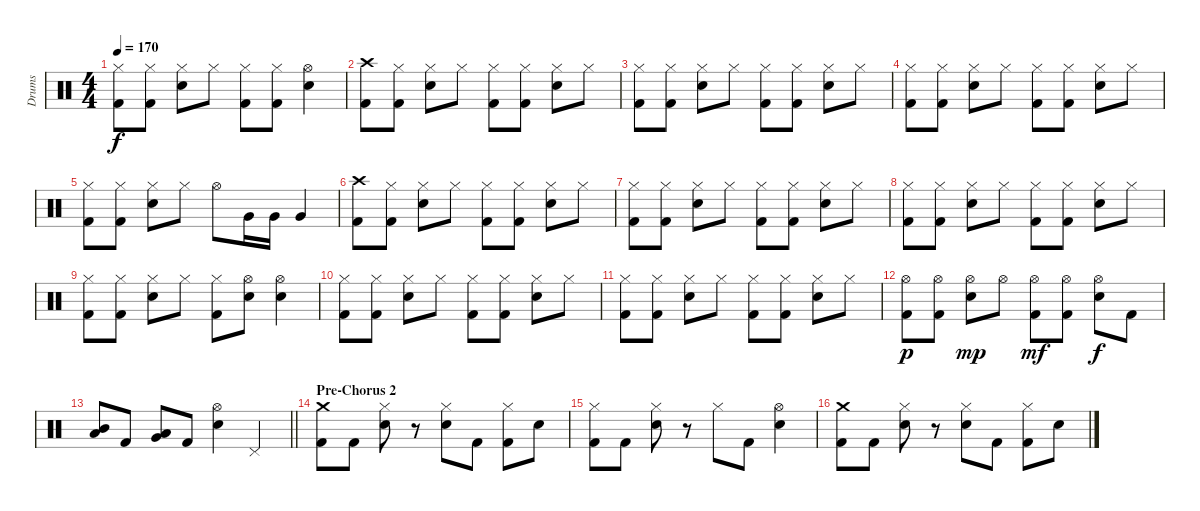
\track ("Drums" "Drums") {instrument percussion}
\staff {score}
\articulation defaults
\ts (4 4)
\tempo 170
\clef neutral
\ks c
("Hi-Hat (closed)" "Kick (hit) 2").8{dy f} ("Hi-Hat (closed)" "Kick (hit) 2").8 ("Hi-Hat (closed)" "Snare (hit) 2").8 "Hi-Hat (closed)".8 ("Hi-Hat (closed)" "Kick (hit) 2").8 ("Hi-Hat (closed)" "Kick (hit) 2").8 ("Hi-Hat (open)" "Snare (hit) 2").4 |
("Crash high (hit)" "Kick (hit) 2").8 ("Hi-Hat (closed)" "Kick (hit) 2").8 ("Hi-Hat (closed)" "Snare (hit) 2").8 "Hi-Hat (closed)".8 ("Hi-Hat (closed)" "Kick (hit) 2").8 ("Hi-Hat (closed)" "Kick (hit) 2").8 ("Hi-Hat (closed)" "Snare (hit) 2").8 "Hi-Hat (closed)".8 |
("Hi-Hat (closed)" "Kick (hit) 2").8 ("Hi-Hat (closed)" "Kick (hit) 2").8 ("Hi-Hat (closed)" "Snare (hit) 2").8 "Hi-Hat (closed)".8 ("Hi-Hat (closed)" "Kick (hit) 2").8 ("Hi-Hat (closed)" "Kick (hit) 2").8 ("Hi-Hat (closed)" "Snare (hit) 2").8 "Hi-Hat (closed)".8 |
("Hi-Hat (closed)" "Kick (hit) 2").8 ("Hi-Hat (closed)" "Kick (hit) 2").8 ("Hi-Hat (closed)" "Snare (hit) 2").8 "Hi-Hat (closed)".8 ("Hi-Hat (closed)" "Kick (hit) 2").8 ("Hi-Hat (closed)" "Kick (hit) 2").8 ("Hi-Hat (closed)" "Snare (hit) 2").8 "Hi-Hat (closed)".8 |
("Hi-Hat (closed)" "Kick (hit) 2").8 ("Hi-Hat (closed)" "Kick (hit) 2").8 ("Hi-Hat (closed)" "Snare (hit) 2").8 "Hi-Hat (closed)".8 "Hi-Hat (open)".8 "Very Low Tom (hit)".16 "Very Low Tom (hit)".16 "Very Low Tom (hit)".4 |
("Crash high (hit)" "Kick (hit) 2").8 ("Hi-Hat (closed)" "Kick (hit) 2").8 ("Hi-Hat (closed)" "Snare (hit) 2").8 "Hi-Hat (closed)".8 ("Hi-Hat (closed)" "Kick (hit) 2").8 ("Hi-Hat (closed)" "Kick (hit) 2").8 ("Hi-Hat (closed)" "Snare (hit) 2").8 "Hi-Hat (closed)".8 |
("Hi-Hat (closed)" "Kick (hit) 2").8 ("Hi-Hat (closed)" "Kick (hit) 2").8 ("Hi-Hat (closed)" "Snare (hit) 2").8 "Hi-Hat (closed)".8 ("Hi-Hat (closed)" "Kick (hit) 2").8 ("Hi-Hat (closed)" "Kick (hit) 2").8 ("Hi-Hat (closed)" "Snare (hit) 2").8 "Hi-Hat (closed)".8 |
("Hi-Hat (closed)" "Kick (hit) 2").8 ("Hi-Hat (closed)" "Kick (hit) 2").8 ("Hi-Hat (closed)" "Snare (hit) 2").8 "Hi-Hat (closed)".8 ("Hi-Hat (closed)" "Kick (hit) 2").8 ("Hi-Hat (closed)" "Kick (hit) 2").8 ("Hi-Hat (closed)" "Snare (hit) 2").8 "Hi-Hat (closed)".8 |
("Hi-Hat (closed)" "Kick (hit) 2").8 ("Hi-Hat (closed)" "Kick (hit) 2").8 ("Hi-Hat (closed)" "Snare (hit) 2").8 "Hi-Hat (closed)".8 ("Hi-Hat (closed)" "Kick (hit) 2").8 ("Hi-Hat (open)" "Snare (hit) 2").8 ("Hi-Hat (open)" "Snare (hit) 2").4 |
("Hi-Hat (closed)" "Kick (hit) 2").8 ("Hi-Hat (closed)" "Kick (hit) 2").8 ("Hi-Hat (closed)" "Snare (hit) 2").8 "Hi-Hat (closed)".8 ("Hi-Hat (closed)" "Kick (hit) 2").8 ("Hi-Hat (closed)" "Kick (hit) 2").8 ("Hi-Hat (closed)" "Snare (hit) 2").8 "Hi-Hat (closed)".8 |
("Hi-Hat (closed)" "Kick (hit) 2").8 ("Hi-Hat (closed)" "Kick (hit) 2").8 ("Hi-Hat (closed)" "Snare (hit) 2").8 "Hi-Hat (closed)".8 ("Hi-Hat (closed)" "Kick (hit) 2").8 ("Hi-Hat (closed)" "Kick (hit) 2").8 ("Hi-Hat (closed)" "Snare (hit) 2").8 "Hi-Hat (closed)".8 |
("Hi-Hat (open)" "Kick (hit) 2").8{dy p} ("Hi-Hat (open)" "Kick (hit) 2").8 ("Hi-Hat (open)" "Snare (hit) 2").8{dy mp} "Hi-Hat (open)".8 ("Hi-Hat (open)" "Kick (hit) 2").8{dy mf} ("Hi-Hat (open)" "Kick (hit) 2").8 ("Hi-Hat (open)" "Snare (hit) 2").8{dy f} "Kick (hit) 2".8 |
\barLineRight lightlight
("Mid Tom (hit)" "Low Tom (hit)").8 "Kick (hit) 2".8 ("Low Tom (hit)" "Very Low Tom (hit)").8 "Kick (hit) 2".8 ("Hi-Hat (open)" "Snare (hit) 2").4 "Pedal Hi-Hat (hit)".4 |
\section ("" "Pre-Chorus 2")
("Crash medium (hit)" "Kick (hit) 2").8 "Kick (hit) 2".8 ("Hi-Hat (closed)" "Snare (hit) 2").8 r.8 ("Hi-Hat (closed)" "Snare (hit) 2").8 "Kick (hit) 2".8 ("Hi-Hat (closed)" "Kick (hit) 2").8 "Snare (hit) 2".8 |
("Hi-Hat (closed)" "Kick (hit) 2").8 "Kick (hit) 2".8 ("Hi-Hat (closed)" "Snare (hit) 2").8 r.8 "Hi-Hat (closed)".8 "Kick (hit) 2".8 ("Hi-Hat (open)" "Snare (hit) 2").4 |
("Crash medium (hit)" "Kick (hit) 2").8 "Kick (hit) 2".8 ("Hi-Hat (closed)" "Snare (hit) 2").8 r.8 ("Hi-Hat (closed)" "Snare (hit) 2").8 "Kick (hit) 2".8 ("Hi-Hat (closed)" "Kick (hit) 2").8 "Snare (hit) 2".8
